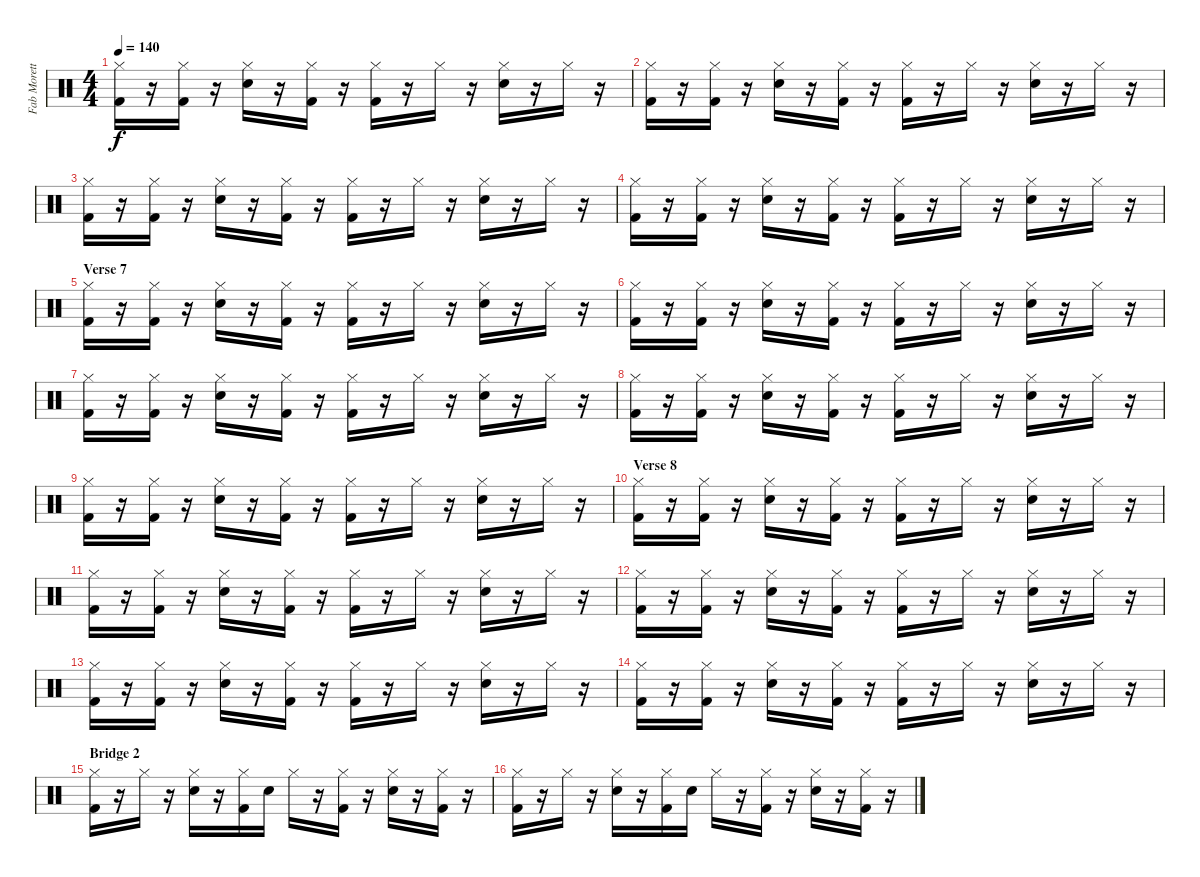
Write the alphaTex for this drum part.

\track ("Fab Moretti - Drums" "Fab Morett") {instrument percussion}
\staff {score}
\articulation defaults
\ts (4 4)
\tempo 140
\clef neutral
\ks c
("Hi-Hat (closed)" "Kick (hit) 2").16{dy f} r.16 ("Hi-Hat (closed)" "Kick (hit) 2").16 r.16 ("Hi-Hat (closed)" "Snare (hit) 2").16 r.16 ("Hi-Hat (closed)" "Kick (hit) 2").16 r.16 ("Hi-Hat (closed)" "Kick (hit) 2").16 r.16 "Hi-Hat (closed)".16 r.16 ("Hi-Hat (closed)" "Snare (hit) 2").16 r.16 "Hi-Hat (closed)".16 r.16 |
("Hi-Hat (closed)" "Kick (hit) 2").16 r.16 ("Hi-Hat (closed)" "Kick (hit) 2").16 r.16 ("Hi-Hat (closed)" "Snare (hit) 2").16 r.16 ("Hi-Hat (closed)" "Kick (hit) 2").16 r.16 ("Hi-Hat (closed)" "Kick (hit) 2").16 r.16 "Hi-Hat (closed)".16 r.16 ("Hi-Hat (closed)" "Snare (hit) 2").16 r.16 "Hi-Hat (closed)".16 r.16 |
("Hi-Hat (closed)" "Kick (hit) 2").16 r.16 ("Hi-Hat (closed)" "Kick (hit) 2").16 r.16 ("Hi-Hat (closed)" "Snare (hit) 2").16 r.16 ("Hi-Hat (closed)" "Kick (hit) 2").16 r.16 ("Hi-Hat (closed)" "Kick (hit) 2").16 r.16 "Hi-Hat (closed)".16 r.16 ("Hi-Hat (closed)" "Snare (hit) 2").16 r.16 "Hi-Hat (closed)".16 r.16 |
("Hi-Hat (closed)" "Kick (hit) 2").16 r.16 ("Hi-Hat (closed)" "Kick (hit) 2").16 r.16 ("Hi-Hat (closed)" "Snare (hit) 2").16 r.16 ("Hi-Hat (closed)" "Kick (hit) 2").16 r.16 ("Hi-Hat (closed)" "Kick (hit) 2").16 r.16 "Hi-Hat (closed)".16 r.16 ("Hi-Hat (closed)" "Snare (hit) 2").16 r.16 "Hi-Hat (closed)".16 r.16 |
\section ("" "Verse 7")
("Hi-Hat (closed)" "Kick (hit) 2").16 r.16 ("Hi-Hat (closed)" "Kick (hit) 2").16 r.16 ("Hi-Hat (closed)" "Snare (hit) 2").16 r.16 ("Hi-Hat (closed)" "Kick (hit) 2").16 r.16 ("Hi-Hat (closed)" "Kick (hit) 2").16 r.16 "Hi-Hat (closed)".16 r.16 ("Hi-Hat (closed)" "Snare (hit) 2").16 r.16 "Hi-Hat (closed)".16 r.16 |
("Hi-Hat (closed)" "Kick (hit) 2").16 r.16 ("Hi-Hat (closed)" "Kick (hit) 2").16 r.16 ("Hi-Hat (closed)" "Snare (hit) 2").16 r.16 ("Hi-Hat (closed)" "Kick (hit) 2").16 r.16 ("Hi-Hat (closed)" "Kick (hit) 2").16 r.16 "Hi-Hat (closed)".16 r.16 ("Hi-Hat (closed)" "Snare (hit) 2").16 r.16 "Hi-Hat (closed)".16 r.16 |
("Hi-Hat (closed)" "Kick (hit) 2").16 r.16 ("Hi-Hat (closed)" "Kick (hit) 2").16 r.16 ("Hi-Hat (closed)" "Snare (hit) 2").16 r.16 ("Hi-Hat (closed)" "Kick (hit) 2").16 r.16 ("Hi-Hat (closed)" "Kick (hit) 2").16 r.16 "Hi-Hat (closed)".16 r.16 ("Hi-Hat (closed)" "Snare (hit) 2").16 r.16 "Hi-Hat (closed)".16 r.16 |
("Hi-Hat (closed)" "Kick (hit) 2").16 r.16 ("Hi-Hat (closed)" "Kick (hit) 2").16 r.16 ("Hi-Hat (closed)" "Snare (hit) 2").16 r.16 ("Hi-Hat (closed)" "Kick (hit) 2").16 r.16 ("Hi-Hat (closed)" "Kick (hit) 2").16 r.16 "Hi-Hat (closed)".16 r.16 ("Hi-Hat (closed)" "Snare (hit) 2").16 r.16 "Hi-Hat (closed)".16 r.16 |
("Hi-Hat (closed)" "Kick (hit) 2").16 r.16 ("Hi-Hat (closed)" "Kick (hit) 2").16 r.16 ("Hi-Hat (closed)" "Snare (hit) 2").16 r.16 ("Hi-Hat (closed)" "Kick (hit) 2").16 r.16 ("Hi-Hat (closed)" "Kick (hit) 2").16 r.16 "Hi-Hat (closed)".16 r.16 ("Hi-Hat (closed)" "Snare (hit) 2").16 r.16 "Hi-Hat (closed)".16 r.16 |
\section ("" "Verse 8")
("Hi-Hat (closed)" "Kick (hit) 2").16 r.16 ("Hi-Hat (closed)" "Kick (hit) 2").16 r.16 ("Hi-Hat (closed)" "Snare (hit) 2").16 r.16 ("Hi-Hat (closed)" "Kick (hit) 2").16 r.16 ("Hi-Hat (closed)" "Kick (hit) 2").16 r.16 "Hi-Hat (closed)".16 r.16 ("Hi-Hat (closed)" "Snare (hit) 2").16 r.16 "Hi-Hat (closed)".16 r.16 |
("Hi-Hat (closed)" "Kick (hit) 2").16 r.16 ("Hi-Hat (closed)" "Kick (hit) 2").16 r.16 ("Hi-Hat (closed)" "Snare (hit) 2").16 r.16 ("Hi-Hat (closed)" "Kick (hit) 2").16 r.16 ("Hi-Hat (closed)" "Kick (hit) 2").16 r.16 "Hi-Hat (closed)".16 r.16 ("Hi-Hat (closed)" "Snare (hit) 2").16 r.16 "Hi-Hat (closed)".16 r.16 |
("Hi-Hat (closed)" "Kick (hit) 2").16 r.16 ("Hi-Hat (closed)" "Kick (hit) 2").16 r.16 ("Hi-Hat (closed)" "Snare (hit) 2").16 r.16 ("Hi-Hat (closed)" "Kick (hit) 2").16 r.16 ("Hi-Hat (closed)" "Kick (hit) 2").16 r.16 "Hi-Hat (closed)".16 r.16 ("Hi-Hat (closed)" "Snare (hit) 2").16 r.16 "Hi-Hat (closed)".16 r.16 |
("Hi-Hat (closed)" "Kick (hit) 2").16 r.16 ("Hi-Hat (closed)" "Kick (hit) 2").16 r.16 ("Hi-Hat (closed)" "Snare (hit) 2").16 r.16 ("Hi-Hat (closed)" "Kick (hit) 2").16 r.16 ("Hi-Hat (closed)" "Kick (hit) 2").16 r.16 "Hi-Hat (closed)".16 r.16 ("Hi-Hat (closed)" "Snare (hit) 2").16 r.16 "Hi-Hat (closed)".16 r.16 |
("Hi-Hat (closed)" "Kick (hit) 2").16 r.16 ("Hi-Hat (closed)" "Kick (hit) 2").16 r.16 ("Hi-Hat (closed)" "Snare (hit) 2").16 r.16 ("Hi-Hat (closed)" "Kick (hit) 2").16 r.16 ("Hi-Hat (closed)" "Kick (hit) 2").16 r.16 "Hi-Hat (closed)".16 r.16 ("Hi-Hat (closed)" "Snare (hit) 2").16 r.16 "Hi-Hat (closed)".16 r.16 |
\section ("" "Bridge 2")
("Hi-Hat (closed)" "Kick (hit) 2").16 r.16 "Hi-Hat (closed)".16 r.16 ("Hi-Hat (closed)" "Snare (hit) 2").16 r.16 ("Hi-Hat (closed)" "Kick (hit) 2").16 "Snare (hit) 2".16 "Hi-Hat (closed)".16 r.16 ("Hi-Hat (closed)" "Kick (hit) 2").16 r.16 ("Hi-Hat (closed)" "Snare (hit) 2").16 r.16 ("Hi-Hat (closed)" "Kick (hit) 2").16 r.16 |
("Hi-Hat (closed)" "Kick (hit) 2").16 r.16 "Hi-Hat (closed)".16 r.16 ("Hi-Hat (closed)" "Snare (hit) 2").16 r.16 ("Hi-Hat (closed)" "Kick (hit) 2").16 "Snare (hit) 2".16 "Hi-Hat (closed)".16 r.16 ("Hi-Hat (closed)" "Kick (hit) 2").16 r.16 ("Hi-Hat (closed)" "Snare (hit) 2").16 r.16 ("Hi-Hat (closed)" "Kick (hit) 2").16 r.16
